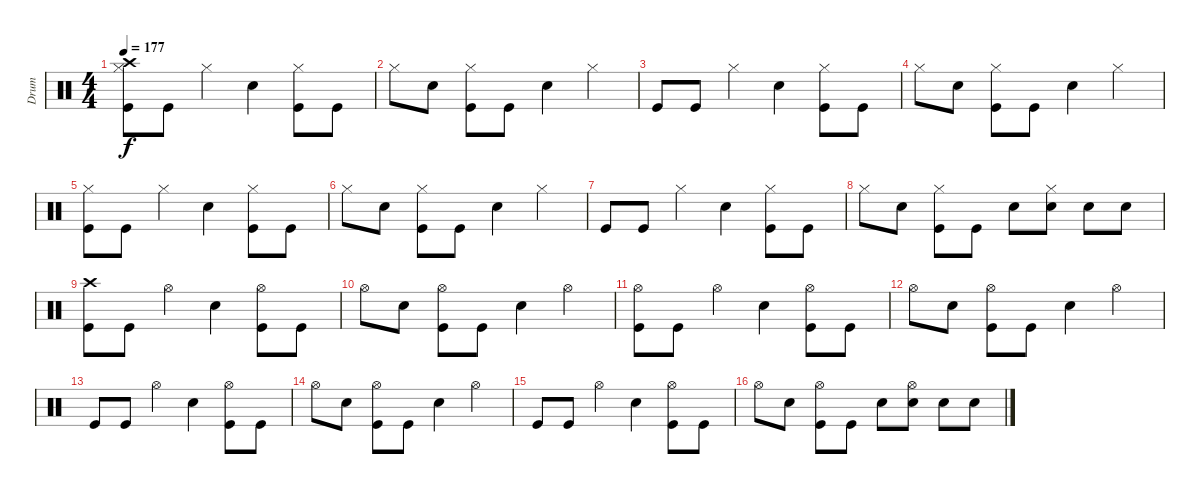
\track ("Drum" "Drum") {instrument percussion}
\staff {score}
\articulation defaults
\ts (4 4)
\tempo 177
\clef neutral
\ks c
("Kick (hit)" "Hi-Hat (closed)" "Crash high (hit)").8{dy f} "Kick (hit)".8 "Hi-Hat (closed)".4 "Snare (hit) 2".4 ("Kick (hit)" "Hi-Hat (closed)").8 "Kick (hit)".8 |
"Hi-Hat (closed)".8 "Snare (hit) 2".8 ("Kick (hit)" "Hi-Hat (closed)").8 "Kick (hit)".8 "Snare (hit) 2".4 "Hi-Hat (closed)".4 |
"Kick (hit)".8 "Kick (hit)".8 "Hi-Hat (closed)".4 "Snare (hit) 2".4 ("Kick (hit)" "Hi-Hat (closed)").8 "Kick (hit)".8 |
"Hi-Hat (closed)".8 "Snare (hit) 2".8 ("Kick (hit)" "Hi-Hat (closed)").8 "Kick (hit)".8 "Snare (hit) 2".4 "Hi-Hat (closed)".4 |
("Kick (hit)" "Hi-Hat (closed)").8 "Kick (hit)".8 "Hi-Hat (closed)".4 "Snare (hit) 2".4 ("Kick (hit)" "Hi-Hat (closed)").8 "Kick (hit)".8 |
"Hi-Hat (closed)".8 "Snare (hit) 2".8 ("Kick (hit)" "Hi-Hat (closed)").8 "Kick (hit)".8 "Snare (hit) 2".4 "Hi-Hat (closed)".4 |
"Kick (hit)".8 "Kick (hit)".8 "Hi-Hat (closed)".4 "Snare (hit) 2".4 ("Kick (hit)" "Hi-Hat (closed)").8 "Kick (hit)".8 |
"Hi-Hat (closed)".8 "Snare (hit) 2".8 ("Kick (hit)" "Hi-Hat (closed)").8 "Kick (hit)".8 "Snare (hit) 2".8 ("Snare (hit) 2" "Hi-Hat (closed)").8 "Snare (hit) 2".8 "Snare (hit) 2".8 |
("Kick (hit)" "Crash high (hit)").8 "Kick (hit)".8 "Hi-Hat (open)".4 "Snare (hit) 2".4 ("Kick (hit)" "Hi-Hat (open)").8 "Kick (hit)".8 |
"Hi-Hat (open)".8 "Snare (hit) 2".8 ("Kick (hit)" "Hi-Hat (open)").8 "Kick (hit)".8 "Snare (hit) 2".4 "Hi-Hat (open)".4 |
("Kick (hit)" "Hi-Hat (open)").8 "Kick (hit)".8 "Hi-Hat (open)".4 "Snare (hit) 2".4 ("Kick (hit)" "Hi-Hat (open)").8 "Kick (hit)".8 |
"Hi-Hat (open)".8 "Snare (hit) 2".8 ("Kick (hit)" "Hi-Hat (open)").8 "Kick (hit)".8 "Snare (hit) 2".4 "Hi-Hat (open)".4 |
"Kick (hit)".8 "Kick (hit)".8 "Hi-Hat (open)".4 "Snare (hit) 2".4 ("Kick (hit)" "Hi-Hat (open)").8 "Kick (hit)".8 |
"Hi-Hat (open)".8 "Snare (hit) 2".8 ("Kick (hit)" "Hi-Hat (open)").8 "Kick (hit)".8 "Snare (hit) 2".4 "Hi-Hat (open)".4 |
"Kick (hit)".8 "Kick (hit)".8 "Hi-Hat (open)".4 "Snare (hit) 2".4 ("Kick (hit)" "Hi-Hat (open)").8 "Kick (hit)".8 |
"Hi-Hat (open)".8 "Snare (hit) 2".8 ("Kick (hit)" "Hi-Hat (open)").8 "Kick (hit)".8 "Snare (hit) 2".8 ("Snare (hit) 2" "Hi-Hat (open)").8 "Snare (hit) 2".8 "Snare (hit) 2".8
